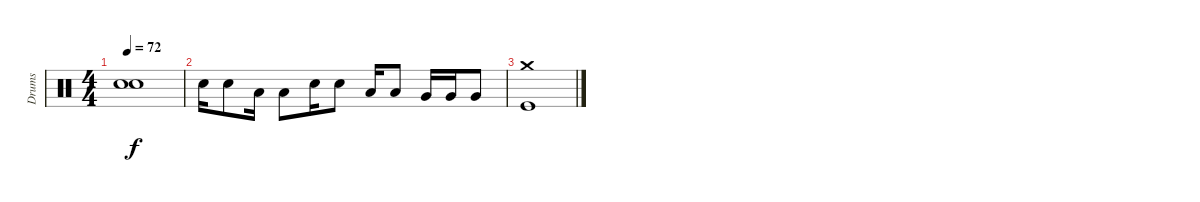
\track ("Drums" "Drums") {instrument percussion}
\staff {score}
\articulation defaults
\ts (4 4)
\tempo 72
\clef neutral
\ks c
("Snare (hit)"{t} "Snare (hit)"{t}).1{dy f} |
"Snare (hit) 2".16 "Snare (hit) 2".8 "Low Tom (hit)".16 "Low Tom (hit)".8 "Snare (hit) 2".16 "Snare (hit) 2".8 "Low Tom (hit)".16 "Low Tom (hit)".8 "Very Low Tom (hit)".16 "Very Low Tom (hit)".16 "Very Low Tom (hit)".8 |
("Crash medium (hit)" "Kick (hit)").1
